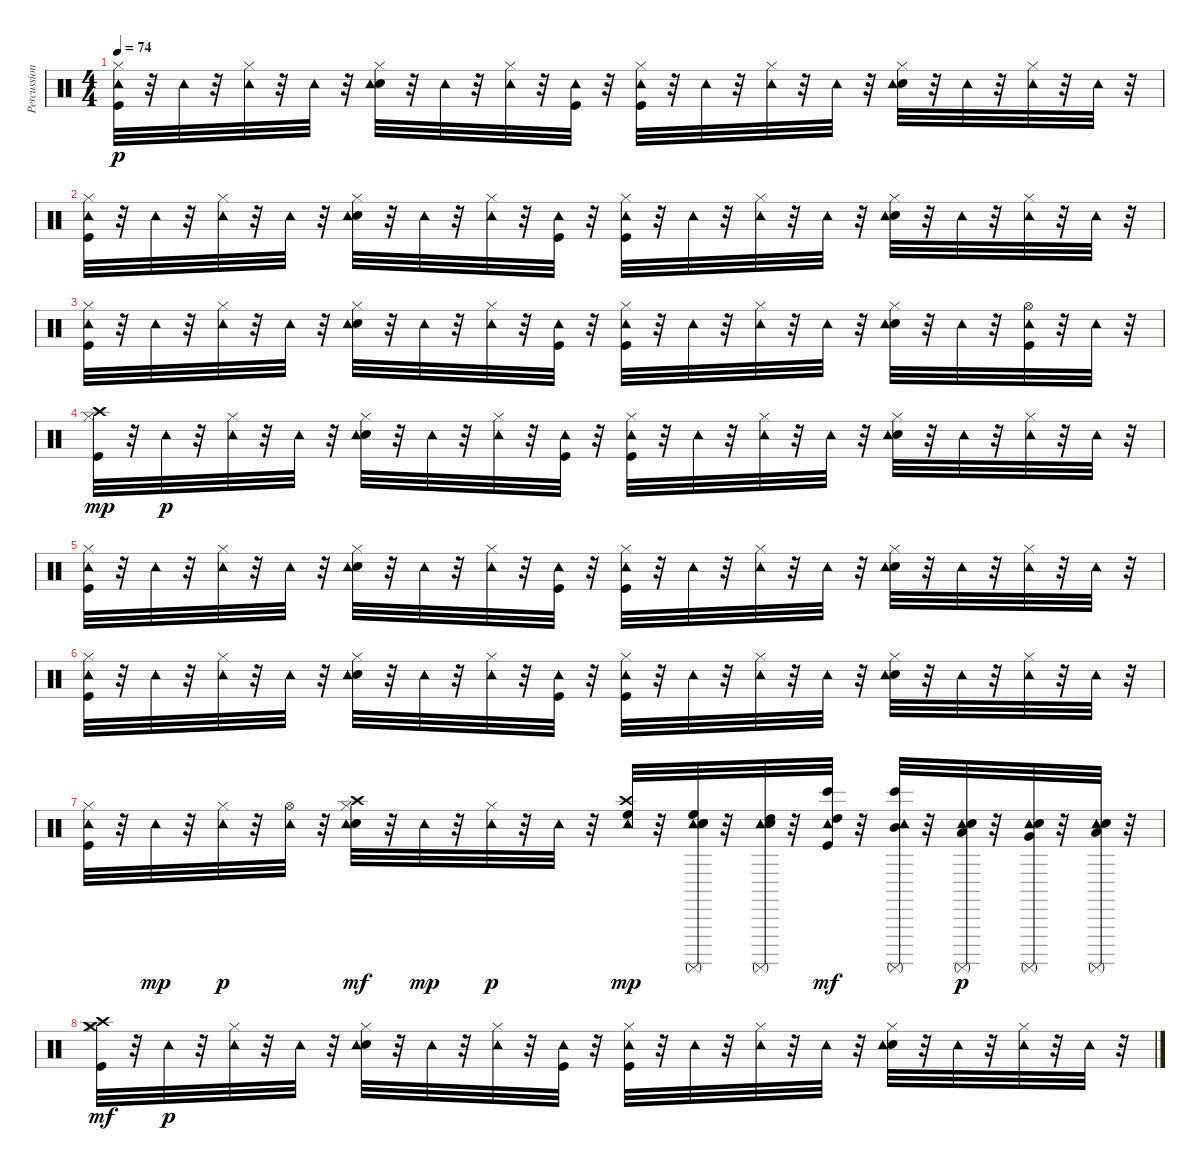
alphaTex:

\track ("Percussion" "Percussion") {instrument percussion}
\staff {score}
\articulation defaults
\ts (4 4)
\tempo 74
\clef neutral
\ks c
("Kick (hit)" "Hi-Hat (closed)" "Tambourine (hit)").32{dy p} r.32 "Tambourine (hit)".32 r.32 ("Hi-Hat (closed)" "Tambourine (hit)").32 r.32 "Tambourine (hit)".32 r.32 ("Snare (hit) 2" "Hi-Hat (closed)" "Tambourine (hit)").32 r.32 "Tambourine (hit)".32 r.32 ("Hi-Hat (closed)" "Tambourine (hit)").32 r.32 ("Kick (hit)" "Tambourine (hit)").32 r.32 ("Kick (hit)" "Hi-Hat (closed)" "Tambourine (hit)").32 r.32 "Tambourine (hit)".32 r.32 ("Hi-Hat (closed)" "Tambourine (hit)").32 r.32 "Tambourine (hit)".32 r.32 ("Snare (hit) 2" "Hi-Hat (closed)" "Tambourine (hit)").32 r.32 "Tambourine (hit)".32 r.32 ("Hi-Hat (closed)" "Tambourine (hit)").32 r.32 "Tambourine (hit)".32 r.32 |
("Kick (hit)" "Hi-Hat (closed)" "Tambourine (hit)").32 r.32 "Tambourine (hit)".32 r.32 ("Hi-Hat (closed)" "Tambourine (hit)").32 r.32 "Tambourine (hit)".32 r.32 ("Snare (hit) 2" "Hi-Hat (closed)" "Tambourine (hit)").32 r.32 "Tambourine (hit)".32 r.32 ("Hi-Hat (closed)" "Tambourine (hit)").32 r.32 ("Kick (hit)" "Tambourine (hit)").32 r.32 ("Kick (hit)" "Hi-Hat (closed)" "Tambourine (hit)").32 r.32 "Tambourine (hit)".32 r.32 ("Hi-Hat (closed)" "Tambourine (hit)").32 r.32 "Tambourine (hit)".32 r.32 ("Snare (hit) 2" "Hi-Hat (closed)" "Tambourine (hit)").32 r.32 "Tambourine (hit)".32 r.32 ("Hi-Hat (closed)" "Tambourine (hit)").32 r.32 "Tambourine (hit)".32 r.32 |
("Kick (hit)" "Hi-Hat (closed)" "Tambourine (hit)").32 r.32 "Tambourine (hit)".32 r.32 ("Hi-Hat (closed)" "Tambourine (hit)").32 r.32 "Tambourine (hit)".32 r.32 ("Snare (hit) 2" "Hi-Hat (closed)" "Tambourine (hit)").32 r.32 "Tambourine (hit)".32 r.32 ("Hi-Hat (closed)" "Tambourine (hit)").32 r.32 ("Kick (hit)" "Tambourine (hit)").32 r.32 ("Kick (hit)" "Hi-Hat (closed)" "Tambourine (hit)").32 r.32 "Tambourine (hit)".32 r.32 ("Hi-Hat (closed)" "Tambourine (hit)").32 r.32 "Tambourine (hit)".32 r.32 ("Snare (hit) 2" "Hi-Hat (closed)" "Tambourine (hit)").32 r.32 "Tambourine (hit)".32 r.32 ("Kick (hit)" "Hi-Hat (open)" "Tambourine (hit)").32 r.32 "Tambourine (hit)".32 r.32 |
("Kick (hit)" "Hi-Hat (closed)" "Crash high (hit)").32{dy mp} r.32 "Tambourine (hit)".32{dy p} r.32 ("Hi-Hat (closed)" "Tambourine (hit)").32 r.32 "Tambourine (hit)".32 r.32 ("Snare (hit) 2" "Hi-Hat (closed)" "Tambourine (hit)").32 r.32 "Tambourine (hit)".32 r.32 ("Hi-Hat (closed)" "Tambourine (hit)").32 r.32 ("Kick (hit)" "Tambourine (hit)").32 r.32 ("Kick (hit)" "Hi-Hat (closed)" "Tambourine (hit)").32 r.32 "Tambourine (hit)".32 r.32 ("Hi-Hat (closed)" "Tambourine (hit)").32 r.32 "Tambourine (hit)".32 r.32 ("Snare (hit) 2" "Hi-Hat (closed)" "Tambourine (hit)").32 r.32 "Tambourine (hit)".32 r.32 ("Hi-Hat (closed)" "Tambourine (hit)").32 r.32 "Tambourine (hit)".32 r.32 |
("Kick (hit)" "Hi-Hat (closed)" "Tambourine (hit)").32 r.32 "Tambourine (hit)".32 r.32 ("Hi-Hat (closed)" "Tambourine (hit)").32 r.32 "Tambourine (hit)".32 r.32 ("Snare (hit) 2" "Hi-Hat (closed)" "Tambourine (hit)").32 r.32 "Tambourine (hit)".32 r.32 ("Hi-Hat (closed)" "Tambourine (hit)").32 r.32 ("Kick (hit)" "Tambourine (hit)").32 r.32 ("Kick (hit)" "Hi-Hat (closed)" "Tambourine (hit)").32 r.32 "Tambourine (hit)".32 r.32 ("Hi-Hat (closed)" "Tambourine (hit)").32 r.32 "Tambourine (hit)".32 r.32 ("Snare (hit) 2" "Hi-Hat (closed)" "Tambourine (hit)").32 r.32 "Tambourine (hit)".32 r.32 ("Hi-Hat (closed)" "Tambourine (hit)").32 r.32 "Tambourine (hit)".32 r.32 |
("Kick (hit)" "Hi-Hat (closed)" "Tambourine (hit)").32 r.32 "Tambourine (hit)".32 r.32 ("Hi-Hat (closed)" "Tambourine (hit)").32 r.32 "Tambourine (hit)".32 r.32 ("Snare (hit) 2" "Hi-Hat (closed)" "Tambourine (hit)").32 r.32 "Tambourine (hit)".32 r.32 ("Hi-Hat (closed)" "Tambourine (hit)").32 r.32 ("Kick (hit)" "Tambourine (hit)").32 r.32 ("Kick (hit)" "Hi-Hat (closed)" "Tambourine (hit)").32 r.32 "Tambourine (hit)".32 r.32 ("Hi-Hat (closed)" "Tambourine (hit)").32 r.32 "Tambourine (hit)".32 r.32 ("Snare (hit) 2" "Hi-Hat (closed)" "Tambourine (hit)").32 r.32 "Tambourine (hit)".32 r.32 ("Hi-Hat (closed)" "Tambourine (hit)").32 r.32 "Tambourine (hit)".32 r.32 |
("Kick (hit)" "Hi-Hat (closed)" "Tambourine (hit)").32 r.32 "Tambourine (hit)".32{dy mp} r.32 ("Hi-Hat (closed)" "Tambourine (hit)").32{dy p} r.32 ("Tambourine (hit)" "Hi-Hat (open)").32 r.32 ("Snare (hit) 2" "Hi-Hat (closed)" "Tambourine (hit)" "Crash high (hit)").32{dy mf} r.32 "Tambourine (hit)".32{dy mp} r.32 ("Hi-Hat (closed)" "Tambourine (hit)").32{dy p} r.32 "Tambourine (hit)".32 r.32 ("High Floor Tom (hit)" "Tambourine (hit)" "Crash high (hit)").32{dy mp} r.32 ("High Floor Tom (hit)" "Tambourine (hit)" "Hand Clap (hit)" "Electric Snare (hit)" "Surdo (mute)").32 r.32 ("High Tom (hit)" "Tambourine (hit)" "Hand Clap (hit)" "Electric Snare (hit)" "Surdo (mute)").32 r.32 ("High Tom (hit)" "Tambourine (hit)" "Bongo High (hit)" "Kick (hit)").32{dy mf} r.32 ("Mid Tom (hit)" "Tambourine (hit)" "Bongo High (hit)" "Surdo (mute)").32 r.32 ("Low Tom (hit)" "Tambourine (hit)" "Snare (hit) 2" "Surdo (mute)").32{dy p} r.32 ("Very Low Tom (hit)" "Tambourine (hit)" "Snare (hit) 2" "Surdo (mute)").32 r.32 ("Low Floor Tom (hit)" "Tambourine (hit)" "Snare (hit) 2" "Surdo (mute)").32 r.32 |
("Kick (hit)" "Hi-Hat (closed)" "Crash high (hit)" "Crash medium (hit)").32{dy mf} r.32 "Tambourine (hit)".32{dy p} r.32 ("Hi-Hat (closed)" "Tambourine (hit)").32 r.32 "Tambourine (hit)".32 r.32 ("Snare (hit) 2" "Hi-Hat (closed)" "Tambourine (hit)").32 r.32 "Tambourine (hit)".32 r.32 ("Hi-Hat (closed)" "Tambourine (hit)").32 r.32 ("Kick (hit)" "Tambourine (hit)").32 r.32 ("Kick (hit)" "Hi-Hat (closed)" "Tambourine (hit)").32 r.32 "Tambourine (hit)".32 r.32 ("Hi-Hat (closed)" "Tambourine (hit)").32 r.32 "Tambourine (hit)".32 r.32 ("Snare (hit) 2" "Hi-Hat (closed)" "Tambourine (hit)").32 r.32 "Tambourine (hit)".32 r.32 ("Hi-Hat (closed)" "Tambourine (hit)").32 r.32 "Tambourine (hit)".32 r.32
